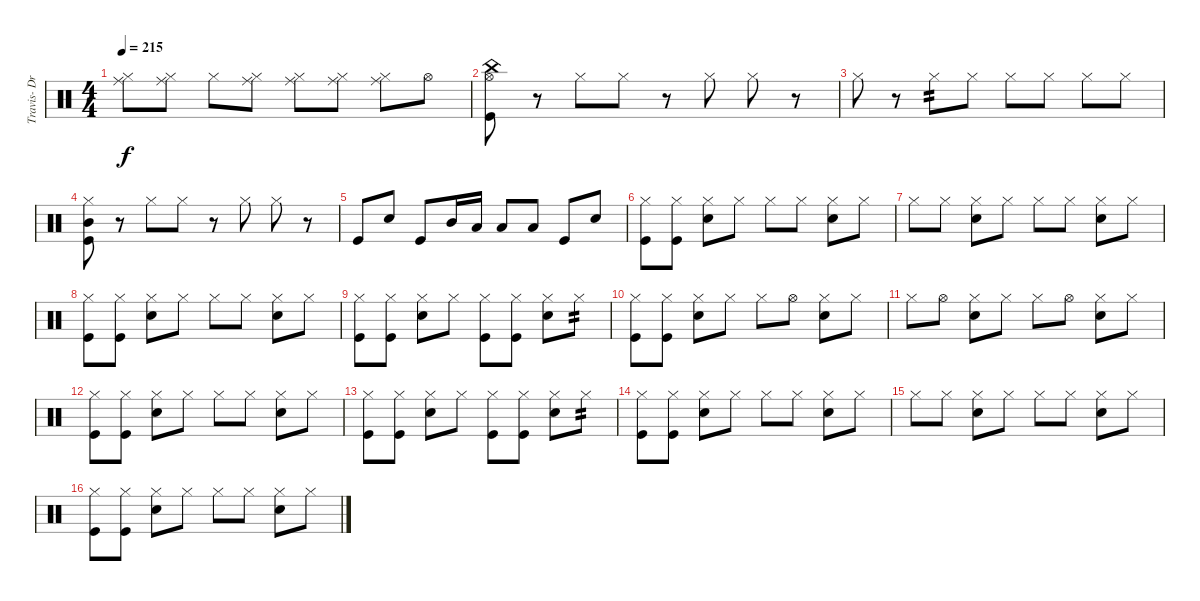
\track ("Travis- Drums" "Travis- Dr") {instrument percussion}
\staff {score}
\articulation defaults
\ts (4 4)
\tempo 215
\clef neutral
\ks c
("Ride (middle)" "Hi-Hat (closed)").8{dy f} ("Ride (middle)" "Hi-Hat (closed)").8 "Hi-Hat (closed)".8 ("Ride (middle)" "Hi-Hat (closed)").8 ("Ride (middle)" "Hi-Hat (closed)").8 ("Ride (middle)" "Hi-Hat (closed)").8 ("Ride (middle)" "Hi-Hat (closed)").8 "Hi-Hat (open)".8 |
("Hi-Hat (open)" "China (hit)" "Kick (hit)").8 r.8 "Hi-Hat (closed)".8 "Hi-Hat (closed)".8 r.8 "Hi-Hat (closed)".8 "Hi-Hat (closed)".8 r.8 |
"Hi-Hat (closed)".8 r.8 "Hi-Hat (closed)".8{tp 2} "Hi-Hat (closed)".8 "Hi-Hat (closed)".8 "Hi-Hat (closed)".8 "Hi-Hat (closed)".8 "Hi-Hat (closed)".8 |
("Mid Tom (hit)" "Kick (hit)" "Hi-Hat (closed)").8 r.8 "Hi-Hat (closed)".8 "Hi-Hat (closed)".8 r.8 "Hi-Hat (closed)".8 "Hi-Hat (closed)".8 r.8 |
"Kick (hit)".8 "Electric Snare (hit)".8 "Kick (hit)".8 "Mid Tom (hit)".16 "Low Tom (hit)".16 "Low Tom (hit)".8 "Low Tom (hit)".8 "Kick (hit)".8 "Electric Snare (hit)".8 |
("Kick (hit)" "Hi-Hat (closed)").8 ("Kick (hit)" "Hi-Hat (closed)").8 ("Electric Snare (hit)" "Hi-Hat (closed)").8 "Hi-Hat (closed)".8 "Hi-Hat (closed)".8 "Hi-Hat (closed)".8 ("Electric Snare (hit)" "Hi-Hat (closed)").8 "Hi-Hat (closed)".8 |
"Hi-Hat (closed)".8 "Hi-Hat (closed)".8 ("Electric Snare (hit)" "Hi-Hat (closed)").8 "Hi-Hat (closed)".8 "Hi-Hat (closed)".8 "Hi-Hat (closed)".8 ("Electric Snare (hit)" "Hi-Hat (closed)").8 "Hi-Hat (closed)".8 |
("Kick (hit)" "Hi-Hat (closed)").8 ("Kick (hit)" "Hi-Hat (closed)").8 ("Electric Snare (hit)" "Hi-Hat (closed)").8 "Hi-Hat (closed)".8 "Hi-Hat (closed)".8 "Hi-Hat (closed)".8 ("Electric Snare (hit)" "Hi-Hat (closed)").8 "Hi-Hat (closed)".8 |
("Kick (hit)" "Hi-Hat (closed)").8 ("Kick (hit)" "Hi-Hat (closed)").8 ("Electric Snare (hit)" "Hi-Hat (closed)").8 "Hi-Hat (closed)".8 ("Kick (hit)" "Hi-Hat (closed)").8 ("Kick (hit)" "Hi-Hat (closed)").8 ("Electric Snare (hit)" "Hi-Hat (closed)").8 "Hi-Hat (closed)".8{tp 2} |
("Kick (hit)" "Hi-Hat (closed)").8 ("Kick (hit)" "Hi-Hat (closed)").8 ("Electric Snare (hit)" "Hi-Hat (closed)").8 "Hi-Hat (closed)".8 "Hi-Hat (closed)".8 "Hi-Hat (open)".8 ("Electric Snare (hit)" "Hi-Hat (closed)").8 "Hi-Hat (closed)".8 |
"Hi-Hat (closed)".8 "Hi-Hat (open)".8 ("Electric Snare (hit)" "Hi-Hat (closed)").8 "Hi-Hat (closed)".8 "Hi-Hat (closed)".8 "Hi-Hat (open)".8 ("Electric Snare (hit)" "Hi-Hat (closed)").8 "Hi-Hat (closed)".8 |
("Kick (hit)" "Hi-Hat (closed)").8 ("Kick (hit)" "Hi-Hat (closed)").8 ("Electric Snare (hit)" "Hi-Hat (closed)").8 "Hi-Hat (closed)".8 "Hi-Hat (closed)".8 "Hi-Hat (closed)".8 ("Electric Snare (hit)" "Hi-Hat (closed)").8 "Hi-Hat (closed)".8 |
("Kick (hit)" "Hi-Hat (closed)").8 ("Kick (hit)" "Hi-Hat (closed)").8 ("Electric Snare (hit)" "Hi-Hat (closed)").8 "Hi-Hat (closed)".8 ("Kick (hit)" "Hi-Hat (closed)").8 ("Kick (hit)" "Hi-Hat (closed)").8 ("Electric Snare (hit)" "Hi-Hat (closed)").8 "Hi-Hat (closed)".8{tp 2} |
("Kick (hit)" "Hi-Hat (closed)").8 ("Kick (hit)" "Hi-Hat (closed)").8 ("Electric Snare (hit)" "Hi-Hat (closed)").8 "Hi-Hat (closed)".8 "Hi-Hat (closed)".8 "Hi-Hat (closed)".8 ("Electric Snare (hit)" "Hi-Hat (closed)").8 "Hi-Hat (closed)".8 |
"Hi-Hat (closed)".8 "Hi-Hat (closed)".8 ("Electric Snare (hit)" "Hi-Hat (closed)").8 "Hi-Hat (closed)".8 "Hi-Hat (closed)".8 "Hi-Hat (closed)".8 ("Electric Snare (hit)" "Hi-Hat (closed)").8 "Hi-Hat (closed)".8 |
("Kick (hit)" "Hi-Hat (closed)").8 ("Kick (hit)" "Hi-Hat (closed)").8 ("Electric Snare (hit)" "Hi-Hat (closed)").8 "Hi-Hat (closed)".8 "Hi-Hat (closed)".8 "Hi-Hat (closed)".8 ("Electric Snare (hit)" "Hi-Hat (closed)").8 "Hi-Hat (closed)".8
